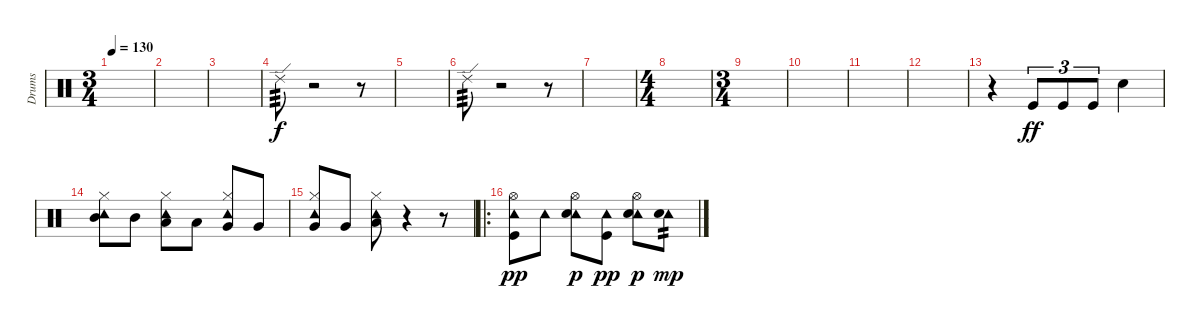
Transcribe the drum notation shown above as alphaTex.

\track ("Drums" "Drums") {instrument percussion}
\staff {score}
\articulation defaults
\ts (3 4)
\tempo 130
\clef neutral
\ks c
|
|
|
"Ride (edge) 2".8{tp 3} r.2 r.8 |
|
"Ride (edge) 2".8{tp 3} r.2 r.8 |
|
\ts (4 4)
|
\ts (3 4)
|
|
|
|
r.4 "Kick (hit)".8{tu (3 2) dy ff} "Kick (hit)".8{tu (3 2)} "Kick (hit)".8{tu (3 2)} "Snare (hit) 2".4 |
("Tambourine (hit)" "Hi-Hat (closed)" "Mid Tom (hit)").8 "Mid Tom (hit)".8 ("Tambourine (hit)" "Hi-Hat (closed)" "Low Tom (hit)").8 "Low Tom (hit)".8 ("Tambourine (hit)" "Hi-Hat (closed)" "Very Low Tom (hit)").8 "Very Low Tom (hit)".8 |
("Tambourine (hit)" "Hi-Hat (closed)" "Very Low Tom (hit)").8 "Very Low Tom (hit)".8 ("Tambourine (hit)" "Hi-Hat (closed)" "Low Floor Tom (hit)").8 r.4 r.8 |
\ro
("Tambourine (hit)" "Hi-Hat (open)" "Kick (hit)").8{dy pp} "Tambourine (hit)".8 ("Tambourine (hit)" "Hi-Hat (open)" "Snare (hit) 2").8{dy p} ("Tambourine (hit)" "Kick (hit)").8{dy pp} ("Tambourine (hit)" "Hi-Hat (open)" "Snare (hit) 2").8{dy p} ("Tambourine (hit)" "Snare (hit) 2").8{tp 2 dy mp}
